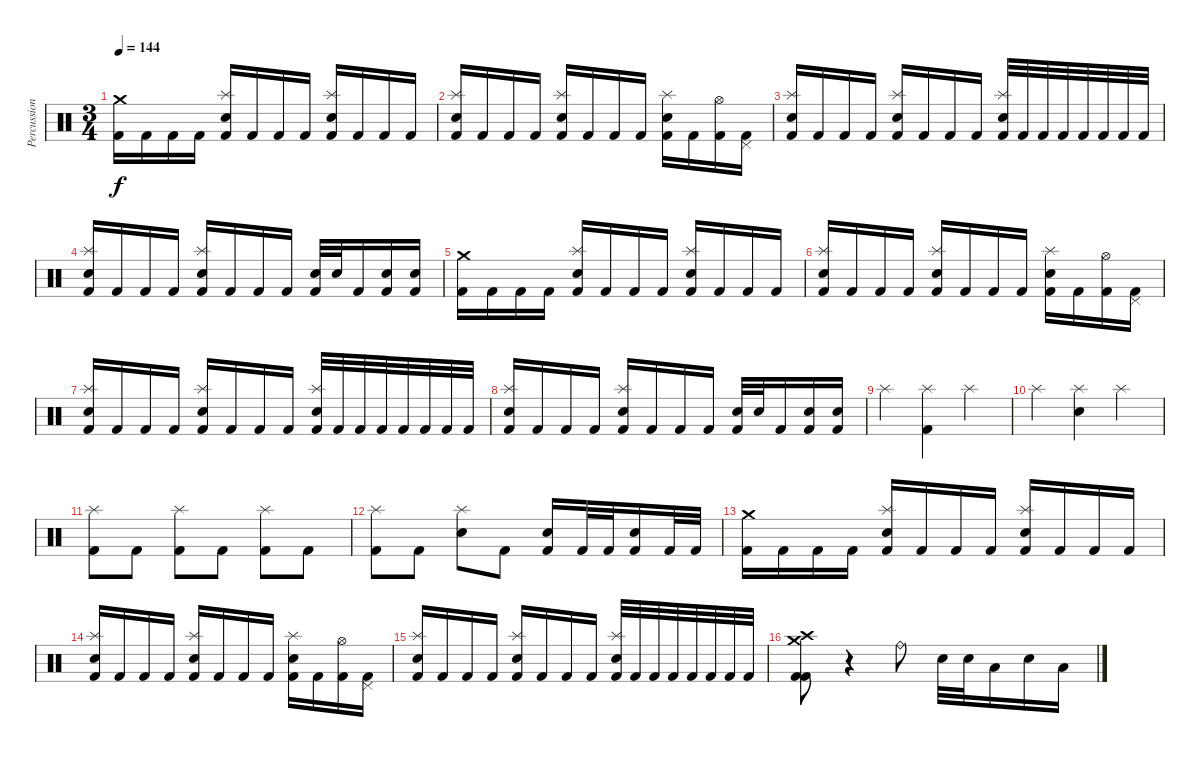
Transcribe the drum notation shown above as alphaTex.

\track ("Percussion" "Percussion") {instrument percussion}
\staff {score}
\articulation defaults
\ts (3 4)
\tempo 144
\clef neutral
\ks c
("Crash medium (hit)" "Kick (hit) 2").16{dy f} "Kick (hit) 2".16 "Kick (hit) 2".16 "Kick (hit) 2".16 ("Splash (hit)" "Electric Snare (hit)" "Kick (hit) 2").16 "Kick (hit) 2".16 "Kick (hit) 2".16 "Kick (hit) 2".16 ("Splash (hit)" "Electric Snare (hit)" "Kick (hit) 2").16 "Kick (hit) 2".16 "Kick (hit) 2".16 "Kick (hit) 2".16 |
("Splash (hit)" "Electric Snare (hit)" "Kick (hit) 2").16 "Kick (hit) 2".16 "Kick (hit) 2".16 "Kick (hit) 2".16 ("Splash (hit)" "Electric Snare (hit)" "Kick (hit) 2").16 "Kick (hit) 2".16 "Kick (hit) 2".16 "Kick (hit) 2".16 ("Splash (hit)" "Electric Snare (hit)" "Kick (hit) 2").16 "Kick (hit) 2".16 ("Hi-Hat (open)" "Kick (hit) 2").16 ("Pedal Hi-Hat (hit)" "Kick (hit) 2").16 |
("Splash (hit)" "Electric Snare (hit)" "Kick (hit) 2").16 "Kick (hit) 2".16 "Kick (hit) 2".16 "Kick (hit) 2".16 ("Splash (hit)" "Electric Snare (hit)" "Kick (hit) 2").16 "Kick (hit) 2".16 "Kick (hit) 2".16 "Kick (hit) 2".16 ("Splash (hit)" "Electric Snare (hit)" "Kick (hit) 2").32 "Kick (hit) 2".32 "Kick (hit) 2".32 "Kick (hit) 2".32 "Kick (hit) 2".32 "Kick (hit) 2".32 "Kick (hit) 2".32 "Kick (hit) 2".32 |
("Splash (hit)" "Electric Snare (hit)" "Kick (hit) 2").16 "Kick (hit) 2".16 "Kick (hit) 2".16 "Kick (hit) 2".16 ("Splash (hit)" "Electric Snare (hit)" "Kick (hit) 2").16 "Kick (hit) 2".16 "Kick (hit) 2".16 "Kick (hit) 2".16 ("Electric Snare (hit)" "Kick (hit) 2").32 "Electric Snare (hit)".32 "Kick (hit) 2".16 ("Electric Snare (hit)" "Kick (hit) 2").16 ("Electric Snare (hit)" "Kick (hit) 2").16 |
("Crash medium (hit)" "Kick (hit) 2").16 "Kick (hit) 2".16 "Kick (hit) 2".16 "Kick (hit) 2".16 ("Splash (hit)" "Electric Snare (hit)" "Kick (hit) 2").16 "Kick (hit) 2".16 "Kick (hit) 2".16 "Kick (hit) 2".16 ("Splash (hit)" "Electric Snare (hit)" "Kick (hit) 2").16 "Kick (hit) 2".16 "Kick (hit) 2".16 "Kick (hit) 2".16 |
("Splash (hit)" "Electric Snare (hit)" "Kick (hit) 2").16 "Kick (hit) 2".16 "Kick (hit) 2".16 "Kick (hit) 2".16 ("Splash (hit)" "Electric Snare (hit)" "Kick (hit) 2").16 "Kick (hit) 2".16 "Kick (hit) 2".16 "Kick (hit) 2".16 ("Splash (hit)" "Electric Snare (hit)" "Kick (hit) 2").16 "Kick (hit) 2".16 ("Hi-Hat (open)" "Kick (hit) 2").16 ("Pedal Hi-Hat (hit)" "Kick (hit) 2").16 |
("Splash (hit)" "Electric Snare (hit)" "Kick (hit) 2").16 "Kick (hit) 2".16 "Kick (hit) 2".16 "Kick (hit) 2".16 ("Splash (hit)" "Electric Snare (hit)" "Kick (hit) 2").16 "Kick (hit) 2".16 "Kick (hit) 2".16 "Kick (hit) 2".16 ("Splash (hit)" "Electric Snare (hit)" "Kick (hit) 2").32 "Kick (hit) 2".32 "Kick (hit) 2".32 "Kick (hit) 2".32 "Kick (hit) 2".32 "Kick (hit) 2".32 "Kick (hit) 2".32 "Kick (hit) 2".32 |
("Splash (hit)" "Electric Snare (hit)" "Kick (hit) 2").16 "Kick (hit) 2".16 "Kick (hit) 2".16 "Kick (hit) 2".16 ("Splash (hit)" "Electric Snare (hit)" "Kick (hit) 2").16 "Kick (hit) 2".16 "Kick (hit) 2".16 "Kick (hit) 2".16 ("Electric Snare (hit)" "Kick (hit) 2").32 "Electric Snare (hit)".32 "Kick (hit) 2".16 ("Electric Snare (hit)" "Kick (hit) 2").16 ("Electric Snare (hit)" "Kick (hit) 2").16 |
"Splash (hit)".4 ("Splash (hit)" "Kick (hit) 2").4 "Splash (hit)".4 |
"Splash (hit)".4 ("Splash (hit)" "Electric Snare (hit)").4 "Splash (hit)".4 |
("Splash (hit)" "Kick (hit) 2").8 "Kick (hit) 2".8 ("Splash (hit)" "Kick (hit) 2").8 "Kick (hit) 2".8 ("Splash (hit)" "Kick (hit) 2").8 "Kick (hit) 2".8 |
("Splash (hit)" "Kick (hit) 2").8 "Kick (hit) 2".8 ("Splash (hit)" "Electric Snare (hit)").8 "Kick (hit) 2".8 ("Electric Snare (hit)" "Kick (hit) 2").16 "Kick (hit) 2".32 "Kick (hit) 2".32 ("Electric Snare (hit)" "Kick (hit) 2").16 "Kick (hit) 2".32 "Kick (hit) 2".32 |
("Crash medium (hit)" "Kick (hit) 2").16 "Kick (hit) 2".16 "Kick (hit) 2".16 "Kick (hit) 2".16 ("Splash (hit)" "Electric Snare (hit)" "Kick (hit) 2").16 "Kick (hit) 2".16 "Kick (hit) 2".16 "Kick (hit) 2".16 ("Splash (hit)" "Electric Snare (hit)" "Kick (hit) 2").16 "Kick (hit) 2".16 "Kick (hit) 2".16 "Kick (hit) 2".16 |
("Splash (hit)" "Electric Snare (hit)" "Kick (hit) 2").16 "Kick (hit) 2".16 "Kick (hit) 2".16 "Kick (hit) 2".16 ("Splash (hit)" "Electric Snare (hit)" "Kick (hit) 2").16 "Kick (hit) 2".16 "Kick (hit) 2".16 "Kick (hit) 2".16 ("Splash (hit)" "Electric Snare (hit)" "Kick (hit) 2").16 "Kick (hit) 2".16 ("Hi-Hat (open)" "Kick (hit) 2").16 ("Pedal Hi-Hat (hit)" "Kick (hit) 2").16 |
("Splash (hit)" "Electric Snare (hit)" "Kick (hit) 2").16 "Kick (hit) 2".16 "Kick (hit) 2".16 "Kick (hit) 2".16 ("Splash (hit)" "Electric Snare (hit)" "Kick (hit) 2").16 "Kick (hit) 2".16 "Kick (hit) 2".16 "Kick (hit) 2".16 ("Splash (hit)" "Electric Snare (hit)" "Kick (hit) 2").32 "Kick (hit) 2".32 "Kick (hit) 2".32 "Kick (hit) 2".32 "Kick (hit) 2".32 "Kick (hit) 2".32 "Kick (hit) 2".32 "Kick (hit) 2".32 |
("Crash high (hit)" "Crash medium (hit)" "Kick (hit) 2" "Kick (hit) 2").8 r.4 "Ride (bell)".8 "Electric Snare (hit)".32 "Electric Snare (hit)".32 "Low Tom (hit)".16 "Electric Snare (hit)".16 "Low Tom (hit)".16
